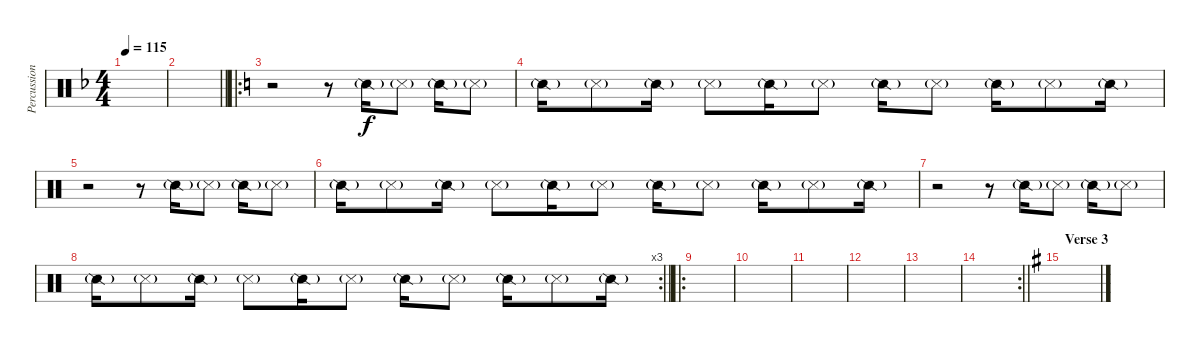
\track ("Percussion FX" "Percussion") {instrument percussion}
\staff {score}
\articulation defaults
\ts (4 4)
\tempo 115
\clef neutral
\ks f
|
\barLineRight lightlight
|
\ro
\ks c
r.2 r.8 "Snare (side stick) 2"{g}.16 "Snare (side stick) 3"{g}.8 "Snare (side stick) 2"{g}.16 "Snare (side stick) 3"{g}.8 |
"Snare (side stick) 2"{g}.16 "Snare (side stick) 3"{g}.8 "Snare (side stick) 2"{g}.16 "Snare (side stick) 3"{g}.8 "Snare (side stick) 2"{g}.16 "Snare (side stick) 3"{g}.8 "Snare (side stick) 2"{g}.16 "Snare (side stick) 3"{g}.8 "Snare (side stick) 2"{g}.16 "Snare (side stick) 3"{g}.8 "Snare (side stick) 2"{g}.16 |
r.2 r.8 "Snare (side stick) 2"{g}.16 "Snare (side stick) 3"{g}.8 "Snare (side stick) 2"{g}.16 "Snare (side stick) 3"{g}.8 |
"Snare (side stick) 2"{g}.16 "Snare (side stick) 3"{g}.8 "Snare (side stick) 2"{g}.16 "Snare (side stick) 3"{g}.8 "Snare (side stick) 2"{g}.16 "Snare (side stick) 3"{g}.8 "Snare (side stick) 2"{g}.16 "Snare (side stick) 3"{g}.8 "Snare (side stick) 2"{g}.16 "Snare (side stick) 3"{g}.8 "Snare (side stick) 2"{g}.16 |
r.2 r.8 "Snare (side stick) 2"{g}.16 "Snare (side stick) 3"{g}.8 "Snare (side stick) 2"{g}.16 "Snare (side stick) 3"{g}.8 |
\rc 3
\barLineRight lightlight "Snare (side stick) 2"{g}.16 "Snare (side stick) 3"{g}.8 "Snare (side stick) 2"{g}.16 "Snare (side stick) 3"{g}.8 "Snare (side stick) 2"{g}.16 "Snare (side stick) 3"{g}.8 "Snare (side stick) 2"{g}.16 "Snare (side stick) 3"{g}.8 "Snare (side stick) 2"{g}.16 "Snare (side stick) 3"{g}.8 "Snare (side stick) 2"{g}.16
|
\ro
|
|
|
|
|
\rc 2
\barLineRight lightlight
|
\section ("" "Verse 3")
\ks g
